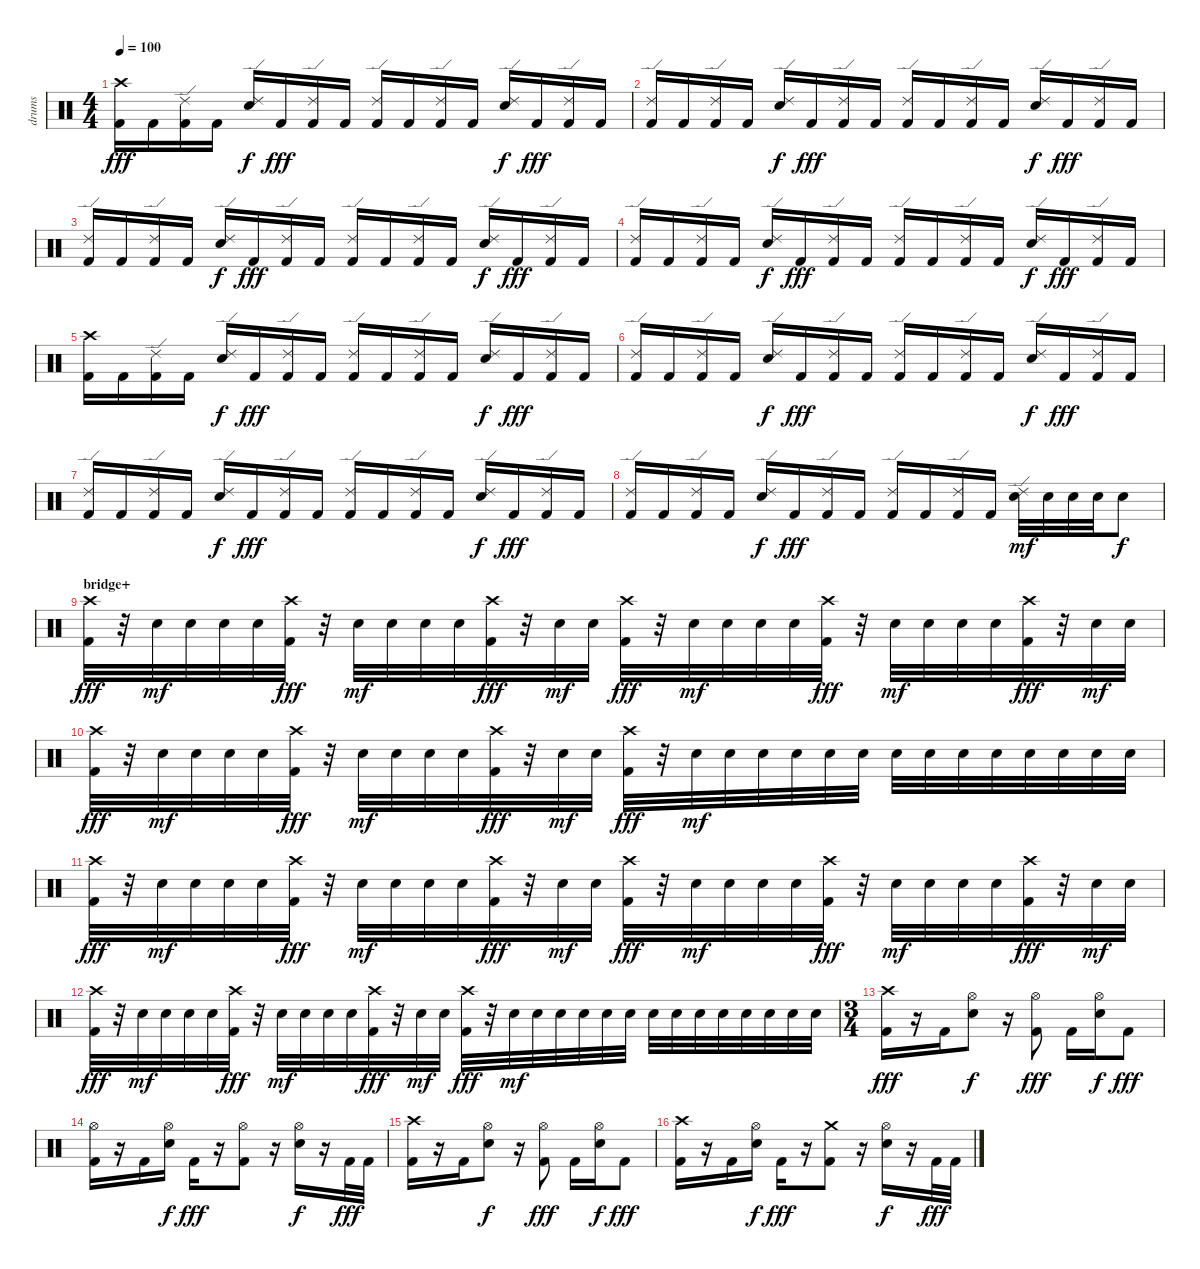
\track ("drums" "drums") {instrument percussion}
\staff {score}
\articulation defaults
\ts (4 4)
\tempo 100
\clef neutral
\ks c
("Crash high (hit)" "Kick (hit) 2").16{dy fff} "Kick (hit) 2".16 ("Ride (edge) 2" "Kick (hit) 2").16 "Kick (hit) 2".16 ("Ride (edge) 2" "Snare (hit) 2").16{dy f} "Kick (hit) 2".16{dy fff} ("Ride (edge) 2" "Kick (hit) 2").16 "Kick (hit) 2".16 ("Ride (edge) 2" "Kick (hit) 2").16 "Kick (hit) 2".16 ("Ride (edge) 2" "Kick (hit) 2").16 "Kick (hit) 2".16 ("Ride (edge) 2" "Snare (hit) 2").16{dy f} "Kick (hit) 2".16{dy fff} ("Ride (edge) 2" "Kick (hit) 2").16 "Kick (hit) 2".16 |
("Ride (edge) 2" "Kick (hit) 2").16 "Kick (hit) 2".16 ("Ride (edge) 2" "Kick (hit) 2").16 "Kick (hit) 2".16 ("Ride (edge) 2" "Snare (hit) 2").16{dy f} "Kick (hit) 2".16{dy fff} ("Ride (edge) 2" "Kick (hit) 2").16 "Kick (hit) 2".16 ("Ride (edge) 2" "Kick (hit) 2").16 "Kick (hit) 2".16 ("Ride (edge) 2" "Kick (hit) 2").16 "Kick (hit) 2".16 ("Ride (edge) 2" "Snare (hit) 2").16{dy f} "Kick (hit) 2".16{dy fff} ("Ride (edge) 2" "Kick (hit) 2").16 "Kick (hit) 2".16 |
("Ride (edge) 2" "Kick (hit) 2").16 "Kick (hit) 2".16 ("Ride (edge) 2" "Kick (hit) 2").16 "Kick (hit) 2".16 ("Ride (edge) 2" "Snare (hit) 2").16{dy f} "Kick (hit) 2".16{dy fff} ("Ride (edge) 2" "Kick (hit) 2").16 "Kick (hit) 2".16 ("Ride (edge) 2" "Kick (hit) 2").16 "Kick (hit) 2".16 ("Ride (edge) 2" "Kick (hit) 2").16 "Kick (hit) 2".16 ("Ride (edge) 2" "Snare (hit) 2").16{dy f} "Kick (hit) 2".16{dy fff} ("Ride (edge) 2" "Kick (hit) 2").16 "Kick (hit) 2".16 |
("Ride (edge) 2" "Kick (hit) 2").16 "Kick (hit) 2".16 ("Ride (edge) 2" "Kick (hit) 2").16 "Kick (hit) 2".16 ("Ride (edge) 2" "Snare (hit) 2").16{dy f} "Kick (hit) 2".16{dy fff} ("Ride (edge) 2" "Kick (hit) 2").16 "Kick (hit) 2".16 ("Ride (edge) 2" "Kick (hit) 2").16 "Kick (hit) 2".16 ("Ride (edge) 2" "Kick (hit) 2").16 "Kick (hit) 2".16 ("Ride (edge) 2" "Snare (hit) 2").16{dy f} "Kick (hit) 2".16{dy fff} ("Ride (edge) 2" "Kick (hit) 2").16 "Kick (hit) 2".16 |
("Crash high (hit)" "Kick (hit) 2").16 "Kick (hit) 2".16 ("Ride (edge) 2" "Kick (hit) 2").16 "Kick (hit) 2".16 ("Ride (edge) 2" "Snare (hit) 2").16{dy f} "Kick (hit) 2".16{dy fff} ("Ride (edge) 2" "Kick (hit) 2").16 "Kick (hit) 2".16 ("Ride (edge) 2" "Kick (hit) 2").16 "Kick (hit) 2".16 ("Ride (edge) 2" "Kick (hit) 2").16 "Kick (hit) 2".16 ("Ride (edge) 2" "Snare (hit) 2").16{dy f} "Kick (hit) 2".16{dy fff} ("Ride (edge) 2" "Kick (hit) 2").16 "Kick (hit) 2".16 |
("Ride (edge) 2" "Kick (hit) 2").16 "Kick (hit) 2".16 ("Ride (edge) 2" "Kick (hit) 2").16 "Kick (hit) 2".16 ("Ride (edge) 2" "Snare (hit) 2").16{dy f} "Kick (hit) 2".16{dy fff} ("Ride (edge) 2" "Kick (hit) 2").16 "Kick (hit) 2".16 ("Ride (edge) 2" "Kick (hit) 2").16 "Kick (hit) 2".16 ("Ride (edge) 2" "Kick (hit) 2").16 "Kick (hit) 2".16 ("Ride (edge) 2" "Snare (hit) 2").16{dy f} "Kick (hit) 2".16{dy fff} ("Ride (edge) 2" "Kick (hit) 2").16 "Kick (hit) 2".16 |
("Ride (edge) 2" "Kick (hit) 2").16 "Kick (hit) 2".16 ("Ride (edge) 2" "Kick (hit) 2").16 "Kick (hit) 2".16 ("Ride (edge) 2" "Snare (hit) 2").16{dy f} "Kick (hit) 2".16{dy fff} ("Ride (edge) 2" "Kick (hit) 2").16 "Kick (hit) 2".16 ("Ride (edge) 2" "Kick (hit) 2").16 "Kick (hit) 2".16 ("Ride (edge) 2" "Kick (hit) 2").16 "Kick (hit) 2".16 ("Ride (edge) 2" "Snare (hit) 2").16{dy f} "Kick (hit) 2".16{dy fff} ("Ride (edge) 2" "Kick (hit) 2").16 "Kick (hit) 2".16 |
("Ride (edge) 2" "Kick (hit) 2").16 "Kick (hit) 2".16 ("Ride (edge) 2" "Kick (hit) 2").16 "Kick (hit) 2".16 ("Ride (edge) 2" "Snare (hit) 2").16{dy f} "Kick (hit) 2".16{dy fff} ("Ride (edge) 2" "Kick (hit) 2").16 "Kick (hit) 2".16 ("Ride (edge) 2" "Kick (hit) 2").16 "Kick (hit) 2".16 ("Ride (edge) 2" "Kick (hit) 2").16 "Kick (hit) 2".16 ("Ride (edge) 2" "Snare (hit) 2").32{dy mf} "Snare (hit) 2".32 "Snare (hit) 2".32 "Snare (hit) 2".32 "Snare (hit) 2".8{dy f} |
\section ("" "bridge+")
("Crash high (hit)" "Kick (hit) 2").32{dy fff} r.32 "Snare (hit) 2".32{dy mf} "Snare (hit) 2".32 "Snare (hit) 2".32 "Snare (hit) 2".32 ("Crash high (hit)" "Kick (hit) 2").32{dy fff} r.32 "Snare (hit) 2".32{dy mf} "Snare (hit) 2".32 "Snare (hit) 2".32 "Snare (hit) 2".32 ("Crash high (hit)" "Kick (hit) 2").32{dy fff} r.32 "Snare (hit) 2".32{dy mf} "Snare (hit) 2".32 ("Crash high (hit)" "Kick (hit) 2").32{dy fff} r.32 "Snare (hit) 2".32{dy mf} "Snare (hit) 2".32 "Snare (hit) 2".32 "Snare (hit) 2".32 ("Crash high (hit)" "Kick (hit) 2").32{dy fff} r.32 "Snare (hit) 2".32{dy mf} "Snare (hit) 2".32 "Snare (hit) 2".32 "Snare (hit) 2".32 ("Crash high (hit)" "Kick (hit) 2").32{dy fff} r.32 "Snare (hit) 2".32{dy mf} "Snare (hit) 2".32 |
("Crash high (hit)" "Kick (hit) 2").32{dy fff} r.32 "Snare (hit) 2".32{dy mf} "Snare (hit) 2".32 "Snare (hit) 2".32 "Snare (hit) 2".32 ("Crash high (hit)" "Kick (hit) 2").32{dy fff} r.32 "Snare (hit) 2".32{dy mf} "Snare (hit) 2".32 "Snare (hit) 2".32 "Snare (hit) 2".32 ("Crash high (hit)" "Kick (hit) 2").32{dy fff} r.32 "Snare (hit) 2".32{dy mf} "Snare (hit) 2".32 ("Crash high (hit)" "Kick (hit) 2").32{dy fff} r.32 "Snare (hit) 2".32{dy mf} "Snare (hit) 2".32 "Snare (hit) 2".32 "Snare (hit) 2".32 "Snare (hit) 2".32 "Snare (hit) 2".32 "Snare (hit) 2".32 "Snare (hit) 2".32 "Snare (hit) 2".32 "Snare (hit) 2".32 "Snare (hit) 2".32 "Snare (hit) 2".32 "Snare (hit) 2".32 "Snare (hit) 2".32 |
("Crash high (hit)" "Kick (hit) 2").32{dy fff} r.32 "Snare (hit) 2".32{dy mf} "Snare (hit) 2".32 "Snare (hit) 2".32 "Snare (hit) 2".32 ("Crash high (hit)" "Kick (hit) 2").32{dy fff} r.32 "Snare (hit) 2".32{dy mf} "Snare (hit) 2".32 "Snare (hit) 2".32 "Snare (hit) 2".32 ("Crash high (hit)" "Kick (hit) 2").32{dy fff} r.32 "Snare (hit) 2".32{dy mf} "Snare (hit) 2".32 ("Crash high (hit)" "Kick (hit) 2").32{dy fff} r.32 "Snare (hit) 2".32{dy mf} "Snare (hit) 2".32 "Snare (hit) 2".32 "Snare (hit) 2".32 ("Crash high (hit)" "Kick (hit) 2").32{dy fff} r.32 "Snare (hit) 2".32{dy mf} "Snare (hit) 2".32 "Snare (hit) 2".32 "Snare (hit) 2".32 ("Crash high (hit)" "Kick (hit) 2").32{dy fff} r.32 "Snare (hit) 2".32{dy mf} "Snare (hit) 2".32 |
("Crash high (hit)" "Kick (hit) 2").32{dy fff} r.32 "Snare (hit) 2".32{dy mf} "Snare (hit) 2".32 "Snare (hit) 2".32 "Snare (hit) 2".32 ("Crash high (hit)" "Kick (hit) 2").32{dy fff} r.32 "Snare (hit) 2".32{dy mf} "Snare (hit) 2".32 "Snare (hit) 2".32 "Snare (hit) 2".32 ("Crash high (hit)" "Kick (hit) 2").32{dy fff} r.32 "Snare (hit) 2".32{dy mf} "Snare (hit) 2".32 ("Crash high (hit)" "Kick (hit) 2").32{dy fff} r.32 "Snare (hit) 2".32{dy mf} "Snare (hit) 2".32 "Snare (hit) 2".32 "Snare (hit) 2".32 "Snare (hit) 2".32 "Snare (hit) 2".32 "Snare (hit) 2".32 "Snare (hit) 2".32 "Snare (hit) 2".32 "Snare (hit) 2".32 "Snare (hit) 2".32 "Snare (hit) 2".32 "Snare (hit) 2".32 "Snare (hit) 2".32 |
\ts (3 4)
("Crash high (hit)" "Kick (hit) 2").16{dy fff} r.16 "Kick (hit) 2".16 ("Hi-Hat (open)" "Snare (hit) 2").8{dy f} r.16 ("Hi-Hat (open)" "Kick (hit) 2").8{dy fff} "Kick (hit) 2".16 ("Hi-Hat (open)" "Snare (hit) 2").16{dy f} "Kick (hit) 2".8{dy fff} |
("Hi-Hat (open)" "Kick (hit) 2").16 r.16 "Kick (hit) 2".16 ("Hi-Hat (open)" "Snare (hit) 2").16{dy f} "Kick (hit) 2".16{dy fff} r.16 ("Hi-Hat (open)" "Kick (hit) 2").8 r.16 ("Hi-Hat (open)" "Snare (hit) 2").16{dy f} r.16 "Kick (hit) 2".32{dy fff} "Kick (hit) 2".32 |
("Crash high (hit)" "Kick (hit) 2").16 r.16 "Kick (hit) 2".16 ("Hi-Hat (open)" "Snare (hit) 2").8{dy f} r.16 ("Hi-Hat (open)" "Kick (hit) 2").8{dy fff} "Kick (hit) 2".16 ("Hi-Hat (open)" "Snare (hit) 2").16{dy f} "Kick (hit) 2".8{dy fff} |
("Crash high (hit)" "Kick (hit) 2").16 r.16 "Kick (hit) 2".16 ("Hi-Hat (open)" "Snare (hit) 2").16{dy f} "Kick (hit) 2".16{dy fff} r.16 ("Crash medium (hit)" "Kick (hit) 2").8 r.16 ("Hi-Hat (open)" "Snare (hit) 2").16{dy f} r.16 "Kick (hit) 2".32{dy fff} "Kick (hit) 2".32
